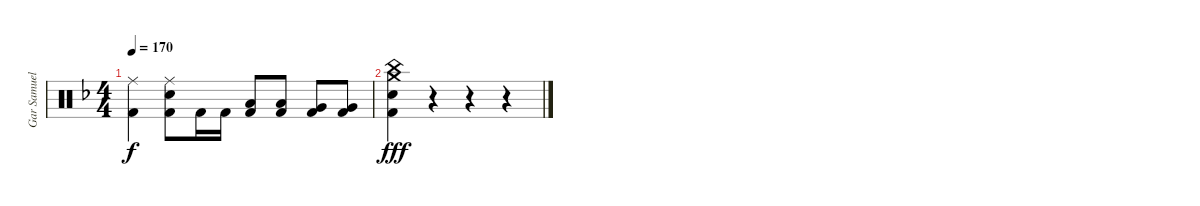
\track ("Gar Samuelson" "Gar Samuel") {instrument percussion}
\staff {score}
\articulation defaults
\ts (4 4)
\tempo 170
\clef neutral
\ks f
("Ride (middle)" "Kick (hit) 2").4{dy f} ("Ride (middle)" "Snare (hit) 2" "Kick (hit) 2").8 "Kick (hit) 2".16 "Kick (hit) 2".16 ("Low Tom (hit)" "Kick (hit) 2").8 ("Low Tom (hit)" "Kick (hit) 2").8 ("Very Low Tom (hit)" "Kick (hit) 2").8 ("Very Low Tom (hit)" "Kick (hit) 2").8 |
("Crash medium (hit)" "China (hit)" "Snare (hit) 2" "Kick (hit) 2").4{dy fff} r.4 r.4 r.4
